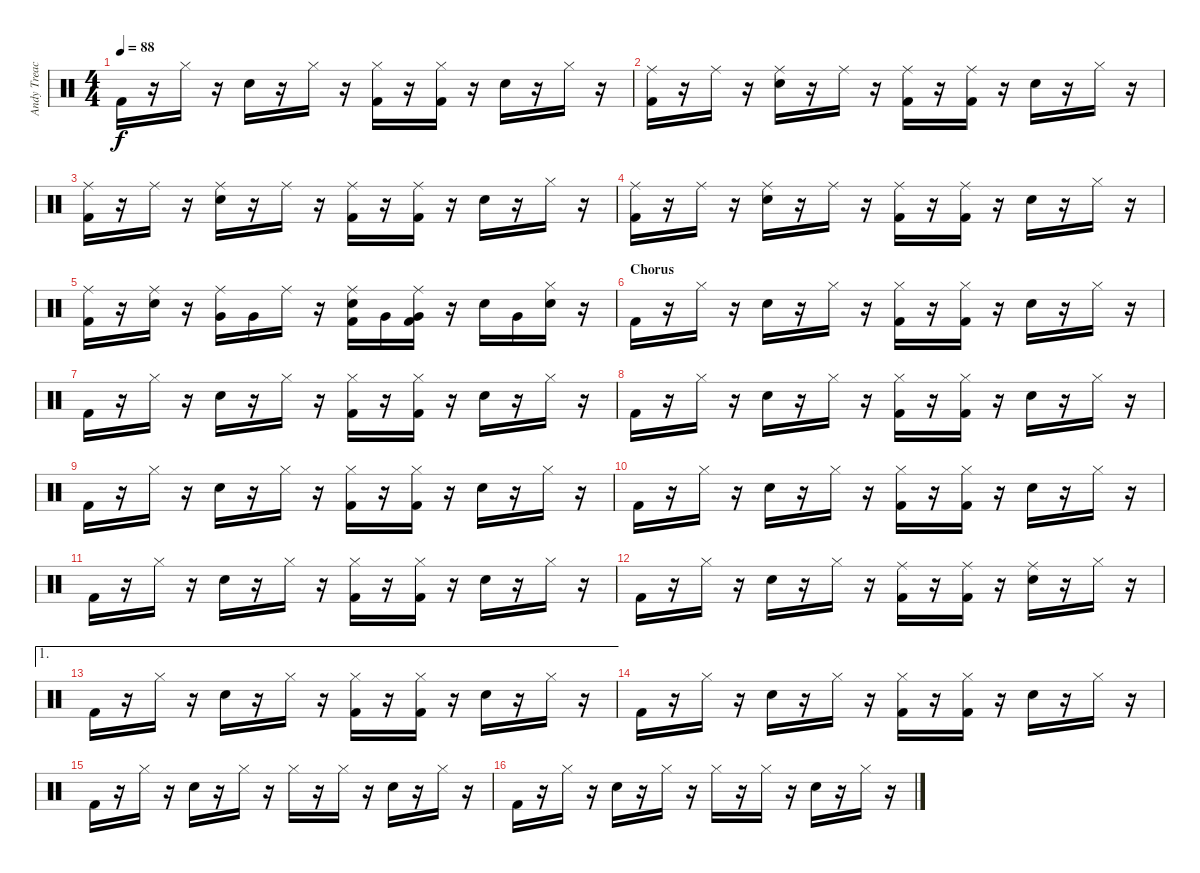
\track ("Andy Treacey" "Andy Treac") {instrument percussion}
\staff {score}
\articulation defaults
\ts (4 4)
\tempo 88
\clef neutral
\ks c "Kick (hit) 2".16{dy f}
r.16 "Hi-Hat (closed)".16 r.16 "Electric Snare (hit)".16 r.16 "Hi-Hat (closed)".16 r.16 ("Hi-Hat (closed)" "Kick (hit) 2").16 r.16 ("Hi-Hat (closed)" "Kick (hit) 2").16 r.16 "Electric Snare (hit)".16 r.16 "Hi-Hat (closed)".16 r.16 |
("Ride (middle)" "Kick (hit) 2").16 r.16 "Ride (middle)".16 r.16 ("Ride (middle)" "Electric Snare (hit)").16 r.16 "Ride (middle)".16 r.16 ("Ride (middle)" "Kick (hit) 2").16 r.16 ("Ride (middle)" "Kick (hit) 2").16 r.16 "Electric Snare (hit)".16 r.16 "Hi-Hat (closed)".16 r.16 |
("Ride (middle)" "Kick (hit) 2").16 r.16 "Ride (middle)".16 r.16 ("Ride (middle)" "Electric Snare (hit)").16 r.16 "Ride (middle)".16 r.16 ("Ride (middle)" "Kick (hit) 2").16 r.16 ("Ride (middle)" "Kick (hit) 2").16 r.16 "Electric Snare (hit)".16 r.16 "Hi-Hat (closed)".16 r.16 |
("Ride (middle)" "Kick (hit) 2").16 r.16 "Ride (middle)".16 r.16 ("Ride (middle)" "Electric Snare (hit)").16 r.16 "Ride (middle)".16 r.16 ("Ride (middle)" "Kick (hit) 2").16 r.16 ("Ride (middle)" "Kick (hit) 2").16 r.16 "Electric Snare (hit)".16 r.16 "Hi-Hat (closed)".16 r.16 |
("Ride (middle)" "Kick (hit) 2").16 r.16 ("Ride (middle)" "Electric Snare (hit)").16 r.16 ("Ride (middle)" "Very Low Tom (hit)").16 "Very Low Tom (hit)".16 "Ride (middle)".16 r.16 ("Ride (middle)" "Electric Snare (hit)" "Kick (hit) 2").16 "Very Low Tom (hit)".16 ("Ride (middle)" "Very Low Tom (hit)" "Kick (hit) 2").16 r.16 "Electric Snare (hit)".16 "Very Low Tom (hit)".16 ("Hi-Hat (closed)" "Electric Snare (hit)").16 r.16 |
\section ("" "Chorus")
"Kick (hit) 2".16 r.16 "Hi-Hat (closed)".16 r.16 "Electric Snare (hit)".16 r.16 "Hi-Hat (closed)".16 r.16 ("Hi-Hat (closed)" "Kick (hit) 2").16 r.16 ("Hi-Hat (closed)" "Kick (hit) 2").16 r.16 "Electric Snare (hit)".16 r.16 "Hi-Hat (closed)".16 r.16 |
"Kick (hit) 2".16 r.16 "Hi-Hat (closed)".16 r.16 "Electric Snare (hit)".16 r.16 "Hi-Hat (closed)".16 r.16 ("Hi-Hat (closed)" "Kick (hit) 2").16 r.16 ("Hi-Hat (closed)" "Kick (hit) 2").16 r.16 "Electric Snare (hit)".16 r.16 "Hi-Hat (closed)".16 r.16 |
"Kick (hit) 2".16 r.16 "Hi-Hat (closed)".16 r.16 "Electric Snare (hit)".16 r.16 "Hi-Hat (closed)".16 r.16 ("Hi-Hat (closed)" "Kick (hit) 2").16 r.16 ("Hi-Hat (closed)" "Kick (hit) 2").16 r.16 "Electric Snare (hit)".16 r.16 "Hi-Hat (closed)".16 r.16 |
"Kick (hit) 2".16 r.16 "Hi-Hat (closed)".16 r.16 "Electric Snare (hit)".16 r.16 "Hi-Hat (closed)".16 r.16 ("Hi-Hat (closed)" "Kick (hit) 2").16 r.16 ("Hi-Hat (closed)" "Kick (hit) 2").16 r.16 "Electric Snare (hit)".16 r.16 "Hi-Hat (closed)".16 r.16 |
"Kick (hit) 2".16 r.16 "Hi-Hat (closed)".16 r.16 "Electric Snare (hit)".16 r.16 "Hi-Hat (closed)".16 r.16 ("Hi-Hat (closed)" "Kick (hit) 2").16 r.16 ("Hi-Hat (closed)" "Kick (hit) 2").16 r.16 "Electric Snare (hit)".16 r.16 "Hi-Hat (closed)".16 r.16 |
"Kick (hit) 2".16 r.16 "Hi-Hat (closed)".16 r.16 "Electric Snare (hit)".16 r.16 "Hi-Hat (closed)".16 r.16 ("Hi-Hat (closed)" "Kick (hit) 2").16 r.16 ("Hi-Hat (closed)" "Kick (hit) 2").16 r.16 "Electric Snare (hit)".16 r.16 "Hi-Hat (closed)".16 r.16 |
"Kick (hit) 2".16 r.16 "Hi-Hat (closed)".16 r.16 "Electric Snare (hit)".16 r.16 "Hi-Hat (closed)".16 r.16 ("Ride (middle)" "Kick (hit) 2").16 r.16 ("Ride (middle)" "Kick (hit) 2").16 r.16 ("Ride (middle)" "Electric Snare (hit)").16 r.16 "Hi-Hat (closed)".16 r.16 |
\ae 1 "Kick (hit) 2".16
r.16 "Hi-Hat (closed)".16 r.16 "Electric Snare (hit)".16 r.16 "Hi-Hat (closed)".16 r.16 ("Hi-Hat (closed)" "Kick (hit) 2").16 r.16 ("Hi-Hat (closed)" "Kick (hit) 2").16 r.16 "Electric Snare (hit)".16 r.16 "Hi-Hat (closed)".16 r.16 |
"Kick (hit) 2".16 r.16 "Hi-Hat (closed)".16 r.16 "Electric Snare (hit)".16 r.16 "Hi-Hat (closed)".16 r.16 ("Hi-Hat (closed)" "Kick (hit) 2").16 r.16 ("Hi-Hat (closed)" "Kick (hit) 2").16 r.16 "Electric Snare (hit)".16 r.16 "Hi-Hat (closed)".16 r.16 |
"Kick (hit) 2".16 r.16 "Hi-Hat (closed)".16 r.16 "Electric Snare (hit)".16 r.16 "Hi-Hat (closed)".16 r.16 "Hi-Hat (closed)".16 r.16 "Hi-Hat (closed)".16 r.16 "Electric Snare (hit)".16 r.16 "Hi-Hat (closed)".16 r.16 |
"Kick (hit) 2".16 r.16 "Hi-Hat (closed)".16 r.16 "Electric Snare (hit)".16 r.16 "Hi-Hat (closed)".16 r.16 "Hi-Hat (closed)".16 r.16 "Hi-Hat (closed)".16 r.16 "Electric Snare (hit)".16 r.16 "Hi-Hat (closed)".16 r.16
